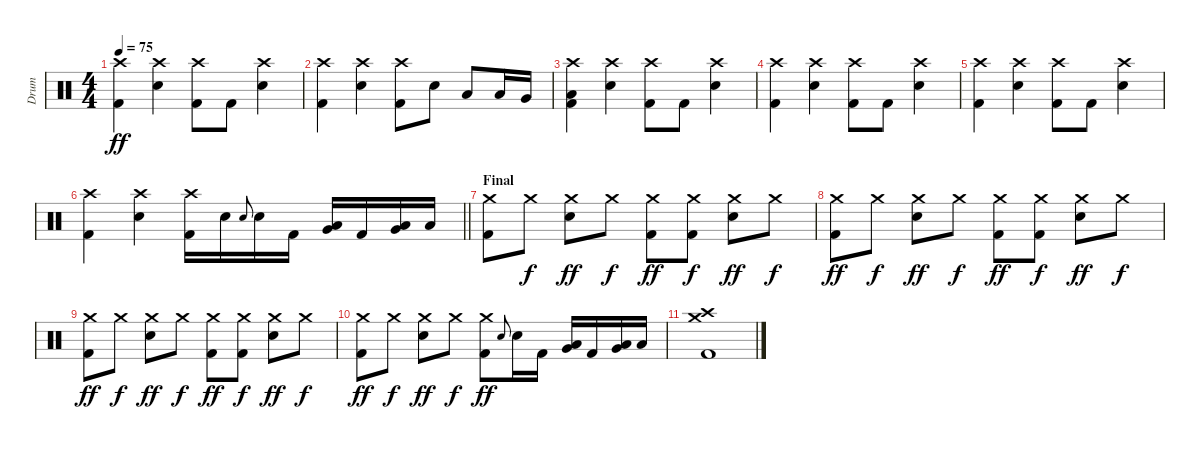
\track ("Drum" "Drum") {instrument percussion}
\staff {score}
\articulation defaults
\ts (4 4)
\tempo 75
\clef neutral
\ks c
("Crash high (hit)" "Kick (hit) 2").4{dy ff} ("Crash high (hit)" "Snare (hit) 2").4 ("Crash high (hit)" "Kick (hit) 2").8 "Kick (hit) 2".8 ("Crash high (hit)" "Snare (hit) 2").4 |
("Crash high (hit)" "Kick (hit) 2").4 ("Crash high (hit)" "Snare (hit) 2").4 ("Crash high (hit)" "Kick (hit) 2").8 "Snare (hit) 2".8 "Low Tom (hit)".8 "Low Tom (hit)".16 "Very Low Tom (hit)".16 |
("Crash high (hit)" "Low Floor Tom (hit)" "Kick (hit) 2").4 ("Crash high (hit)" "Snare (hit) 2").4 ("Crash high (hit)" "Kick (hit) 2").8 "Kick (hit) 2".8 ("Crash high (hit)" "Snare (hit) 2").4 |
("Crash high (hit)" "Kick (hit) 2").4 ("Crash high (hit)" "Snare (hit) 2").4 ("Crash high (hit)" "Kick (hit) 2").8 "Kick (hit) 2".8 ("Crash high (hit)" "Snare (hit) 2").4 |
("Crash high (hit)" "Kick (hit) 2").4 ("Crash high (hit)" "Snare (hit) 2").4 ("Crash high (hit)" "Kick (hit) 2").8 "Kick (hit) 2".8 ("Crash high (hit)" "Snare (hit) 2").4 |
\barLineRight lightlight
("Crash high (hit)" "Kick (hit) 2").4 ("Crash high (hit)" "Snare (hit) 2").4 ("Crash high (hit)" "Kick (hit) 2").16 "Snare (hit) 2".16 "Snare (hit) 2".8{gr onbeat} "Snare (hit) 2".16 "Kick (hit) 2".16 ("Very Low Tom (hit)" "Low Tom (hit)").16{bd 60} "Kick (hit) 2".16 ("Very Low Tom (hit)" "Low Tom (hit)").16{bd 60} "Low Floor Tom (hit)".16 |
\section ("" "Final")
("Crash medium (hit)" "Kick (hit) 2").8 "Crash medium (hit)".8{dy f} ("Crash medium (hit)" "Snare (hit) 2").8{dy ff} "Crash medium (hit)".8{dy f} ("Crash medium (hit)" "Kick (hit) 2").8{dy ff} ("Crash medium (hit)" "Kick (hit) 2").8{dy f} ("Crash medium (hit)" "Snare (hit) 2").8{dy ff} "Crash medium (hit)".8{dy f} |
("Crash medium (hit)" "Kick (hit) 2").8{dy ff} "Crash medium (hit)".8{dy f} ("Crash medium (hit)" "Snare (hit) 2").8{dy ff} "Crash medium (hit)".8{dy f} ("Crash medium (hit)" "Kick (hit) 2").8{dy ff} ("Crash medium (hit)" "Kick (hit) 2").8{dy f} ("Crash medium (hit)" "Snare (hit) 2").8{dy ff} "Crash medium (hit)".8{dy f} |
("Crash medium (hit)" "Kick (hit) 2").8{dy ff} "Crash medium (hit)".8{dy f} ("Crash medium (hit)" "Snare (hit) 2").8{dy ff} "Crash medium (hit)".8{dy f} ("Crash medium (hit)" "Kick (hit) 2").8{dy ff} ("Crash medium (hit)" "Kick (hit) 2").8{dy f} ("Crash medium (hit)" "Snare (hit) 2").8{dy ff} "Crash medium (hit)".8{dy f} |
("Crash medium (hit)" "Kick (hit) 2").8{dy ff} "Crash medium (hit)".8{dy f} ("Crash medium (hit)" "Snare (hit) 2").8{dy ff} "Crash medium (hit)".8{dy f} ("Crash medium (hit)" "Kick (hit) 2").8{dy ff} "Snare (hit) 2".8{gr onbeat} "Snare (hit) 2".16 "Kick (hit) 2".16 ("Very Low Tom (hit)" "Low Tom (hit)").16{bd 60} "Kick (hit) 2".16 ("Very Low Tom (hit)" "Low Tom (hit)").16{bd 60} "Low Floor Tom (hit)".16 |
("Crash medium (hit)" "Crash high (hit)" "Kick (hit) 2").1
